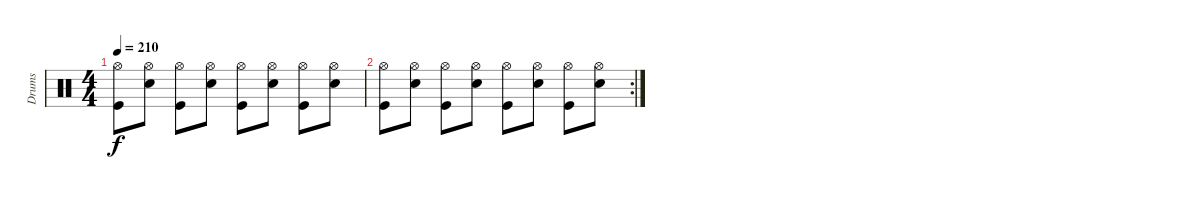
\track ("Drums" "Drums") {instrument percussion}
\staff {score}
\articulation defaults
\ts (4 4)
\tempo 210
\clef neutral
\ks c
("Hi-Hat (open)" "Kick (hit)").8{dy f} ("Hi-Hat (open)" "Snare (hit) 2").8 ("Hi-Hat (open)" "Kick (hit)").8 ("Hi-Hat (open)" "Snare (hit) 2").8 ("Hi-Hat (open)" "Kick (hit)").8 ("Hi-Hat (open)" "Snare (hit) 2").8 ("Hi-Hat (open)" "Kick (hit)").8 ("Hi-Hat (open)" "Snare (hit) 2").8 |
\rc 2
("Hi-Hat (open)" "Kick (hit)").8 ("Hi-Hat (open)" "Snare (hit) 2").8 ("Hi-Hat (open)" "Kick (hit)").8 ("Hi-Hat (open)" "Snare (hit) 2").8 ("Hi-Hat (open)" "Kick (hit)").8 ("Hi-Hat (open)" "Snare (hit) 2").8 ("Hi-Hat (open)" "Kick (hit)").8 ("Hi-Hat (open)" "Snare (hit) 2").8
